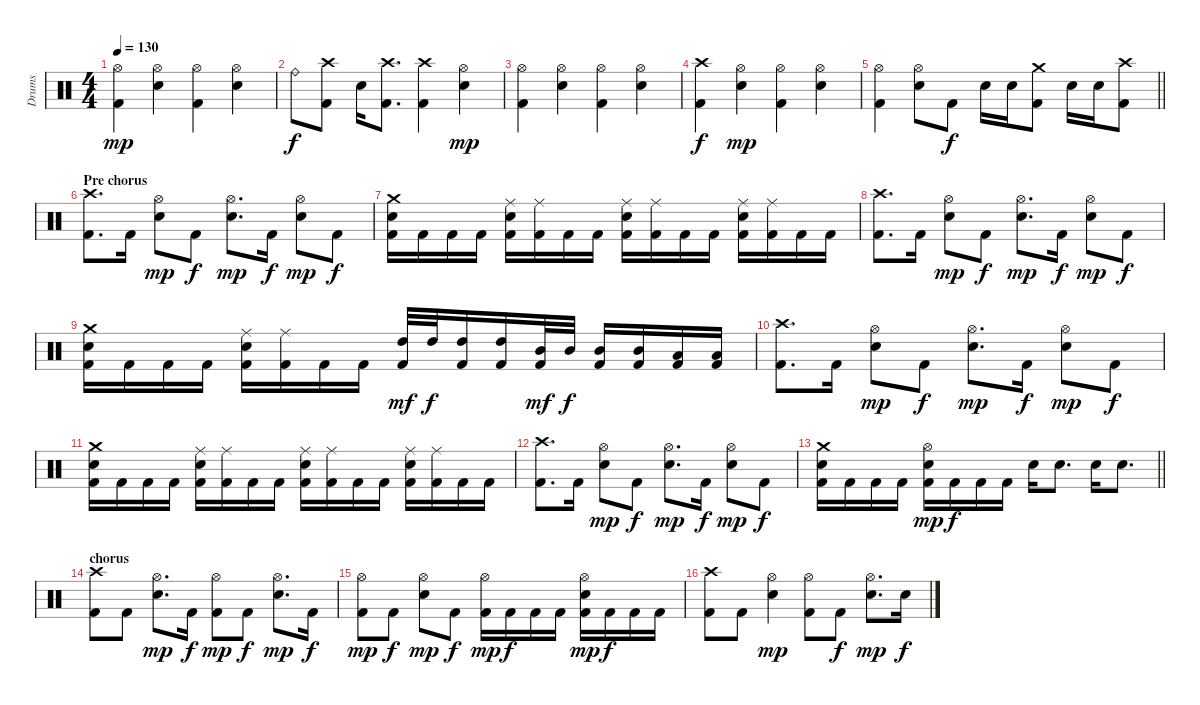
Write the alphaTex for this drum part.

\track ("Drums" "Drums") {instrument percussion}
\staff {score}
\articulation defaults
\ts (4 4)
\tempo 130
\clef neutral
\ks c
("Hi-Hat (open)" "Kick (hit) 2").4{dy mp} ("Hi-Hat (open)" "Electric Snare (hit)").4 ("Hi-Hat (open)" "Kick (hit) 2").4 ("Hi-Hat (open)" "Electric Snare (hit)").4 |
"Ride (bell)".8{dy f} ("Crash high (hit)" "Kick (hit) 2").8 "Electric Snare (hit)".16 ("Crash high (hit)" "Kick (hit) 2").8{d} ("Crash high (hit)" "Kick (hit) 2").4 ("Hi-Hat (open)" "Electric Snare (hit)").4{dy mp} |
("Hi-Hat (open)" "Kick (hit) 2").4 ("Hi-Hat (open)" "Electric Snare (hit)").4 ("Hi-Hat (open)" "Kick (hit) 2").4 ("Hi-Hat (open)" "Electric Snare (hit)").4 |
("Crash high (hit)" "Kick (hit) 2").4{dy f} ("Hi-Hat (open)" "Electric Snare (hit)").4{dy mp} ("Hi-Hat (open)" "Kick (hit) 2").4 ("Hi-Hat (open)" "Electric Snare (hit)").4 |
\barLineRight lightlight
("Hi-Hat (open)" "Kick (hit) 2").4 ("Hi-Hat (open)" "Electric Snare (hit)").8 "Kick (hit) 2".8{dy f} "Electric Snare (hit)".16 "Electric Snare (hit)".16 ("Crash medium (hit)" "Kick (hit) 2").8 "Electric Snare (hit)".16 "Electric Snare (hit)".16 ("Crash high (hit)" "Kick (hit) 2").8 |
\section ("" "Pre chorus")
("Crash high (hit)" "Kick (hit) 2").8{d} "Kick (hit) 2".16 ("Hi-Hat (open)" "Electric Snare (hit)").8{dy mp} "Kick (hit) 2".8{dy f} ("Hi-Hat (open)" "Electric Snare (hit)").8{d dy mp} "Kick (hit) 2".16{dy f} ("Hi-Hat (open)" "Electric Snare (hit)").8{dy mp} "Kick (hit) 2".8{dy f} |
("Crash medium (hit)" "Electric Snare (hit)" "Kick (hit) 2").16 "Kick (hit) 2".16 "Kick (hit) 2".16 "Kick (hit) 2".16 ("Ride (middle)" "Electric Snare (hit)" "Kick (hit) 2").16 ("Ride (middle)" "Kick (hit) 2").16 "Kick (hit) 2".16 "Kick (hit) 2".16 ("Ride (middle)" "Electric Snare (hit)" "Kick (hit) 2").16 ("Ride (middle)" "Kick (hit) 2").16 "Kick (hit) 2".16 "Kick (hit) 2".16 ("Ride (middle)" "Electric Snare (hit)" "Kick (hit) 2").16 ("Ride (middle)" "Kick (hit) 2").16 "Kick (hit) 2".16 "Kick (hit) 2".16 |
("Crash high (hit)" "Kick (hit) 2").8{d} "Kick (hit) 2".16 ("Hi-Hat (open)" "Electric Snare (hit)").8{dy mp} "Kick (hit) 2".8{dy f} ("Hi-Hat (open)" "Electric Snare (hit)").8{d dy mp} "Kick (hit) 2".16{dy f} ("Hi-Hat (open)" "Electric Snare (hit)").8{dy mp} "Kick (hit) 2".8{dy f} |
("Crash medium (hit)" "Electric Snare (hit)" "Kick (hit) 2").16 "Kick (hit) 2".16 "Kick (hit) 2".16 "Kick (hit) 2".16 ("Ride (middle)" "Electric Snare (hit)" "Kick (hit) 2").16 ("Ride (middle)" "Kick (hit) 2").16 "Kick (hit) 2".16 "Kick (hit) 2".16 ("High Tom (hit)" "Kick (hit) 2").32{dy mf} "High Tom (hit)".32{dy f} ("High Tom (hit)" "Kick (hit) 2").16 ("High Tom (hit)" "Kick (hit) 2").16 ("Mid Tom (hit)" "Kick (hit) 2").32{dy mf} "Mid Tom (hit)".32{dy f} ("Mid Tom (hit)" "Kick (hit) 2").16 ("Mid Tom (hit)" "Kick (hit) 2").16 ("Low Tom (hit)" "Kick (hit) 2").16 ("Low Tom (hit)" "Kick (hit) 2").16 |
("Crash high (hit)" "Kick (hit) 2").8{d} "Kick (hit) 2".16 ("Hi-Hat (open)" "Electric Snare (hit)").8{dy mp} "Kick (hit) 2".8{dy f} ("Hi-Hat (open)" "Electric Snare (hit)").8{d dy mp} "Kick (hit) 2".16{dy f} ("Hi-Hat (open)" "Electric Snare (hit)").8{dy mp} "Kick (hit) 2".8{dy f} |
("Crash medium (hit)" "Electric Snare (hit)" "Kick (hit) 2").16 "Kick (hit) 2".16 "Kick (hit) 2".16 "Kick (hit) 2".16 ("Ride (middle)" "Electric Snare (hit)" "Kick (hit) 2").16 ("Ride (middle)" "Kick (hit) 2").16 "Kick (hit) 2".16 "Kick (hit) 2".16 ("Ride (middle)" "Electric Snare (hit)" "Kick (hit) 2").16 ("Ride (middle)" "Kick (hit) 2").16 "Kick (hit) 2".16 "Kick (hit) 2".16 ("Ride (middle)" "Electric Snare (hit)" "Kick (hit) 2").16 ("Ride (middle)" "Kick (hit) 2").16 "Kick (hit) 2".16 "Kick (hit) 2".16 |
("Crash high (hit)" "Kick (hit) 2").8{d} "Kick (hit) 2".16 ("Hi-Hat (open)" "Electric Snare (hit)").8{dy mp} "Kick (hit) 2".8{dy f} ("Hi-Hat (open)" "Electric Snare (hit)").8{d dy mp} "Kick (hit) 2".16{dy f} ("Hi-Hat (open)" "Electric Snare (hit)").8{dy mp} "Kick (hit) 2".8{dy f} |
\barLineRight lightlight
("Crash medium (hit)" "Electric Snare (hit)" "Kick (hit) 2").16 "Kick (hit) 2".16 "Kick (hit) 2".16 "Kick (hit) 2".16 ("Hi-Hat (open)" "Electric Snare (hit)" "Kick (hit) 2").16{dy mp} "Kick (hit) 2".16{dy f} "Kick (hit) 2".16 "Kick (hit) 2".16 "Electric Snare (hit)".16 "Electric Snare (hit)".8{d} "Electric Snare (hit)".16 "Electric Snare (hit)".8{d} |
\section ("" "chorus")
("Crash high (hit)" "Kick (hit) 2").8 "Kick (hit) 2".8 ("Hi-Hat (open)" "Electric Snare (hit)").8{d dy mp} "Kick (hit) 2".16{dy f} ("Hi-Hat (open)" "Kick (hit) 2").8{dy mp} "Kick (hit) 2".8{dy f} ("Hi-Hat (open)" "Electric Snare (hit)").8{d dy mp} "Kick (hit) 2".16{dy f} |
("Hi-Hat (open)" "Kick (hit) 2").8{dy mp} "Kick (hit) 2".8{dy f} ("Hi-Hat (open)" "Electric Snare (hit)").8{dy mp} "Kick (hit) 2".8{dy f} ("Hi-Hat (open)" "Kick (hit) 2").16{dy mp} "Kick (hit) 2".16{dy f} "Kick (hit) 2".16 "Kick (hit) 2".16 ("Hi-Hat (open)" "Electric Snare (hit)" "Kick (hit) 2").16{dy mp} "Kick (hit) 2".16{dy f} "Kick (hit) 2".16 "Kick (hit) 2".16 |
("Crash high (hit)" "Kick (hit) 2").8 "Kick (hit) 2".8 ("Hi-Hat (open)" "Electric Snare (hit)").4{dy mp} ("Hi-Hat (open)" "Kick (hit) 2").8 "Kick (hit) 2".8{dy f} ("Hi-Hat (open)" "Electric Snare (hit)").8{d dy mp} "Electric Snare (hit)".16{dy f}
